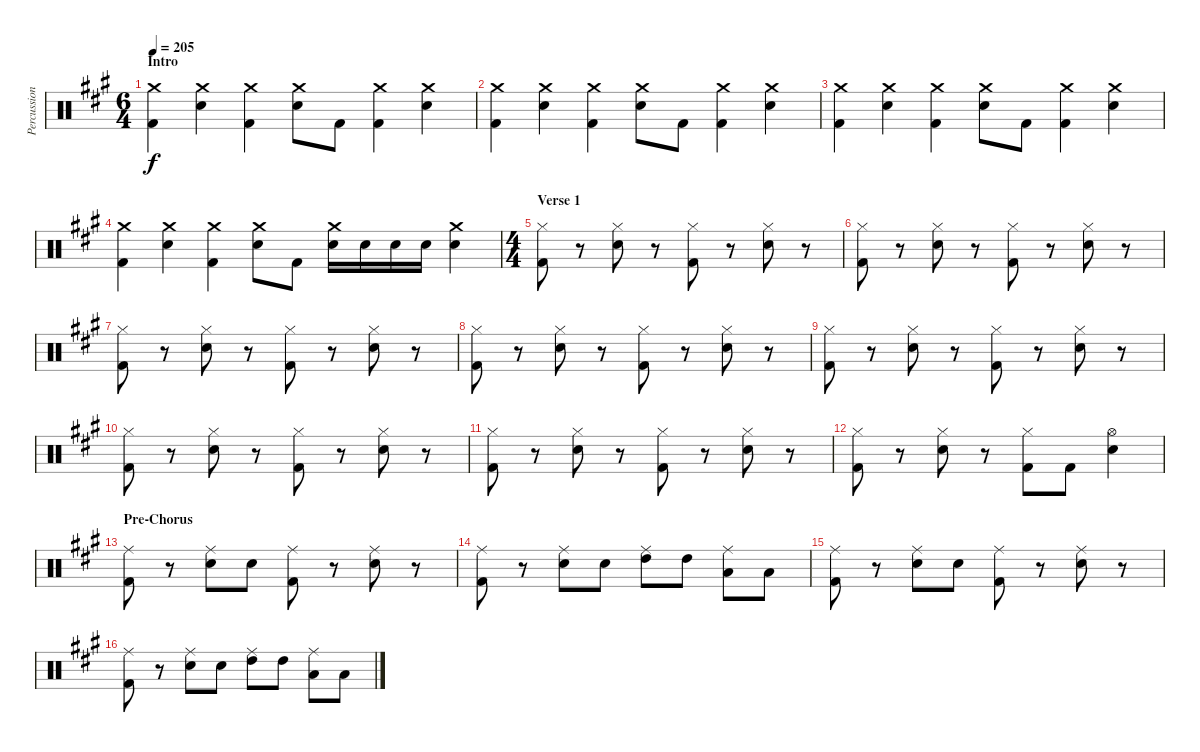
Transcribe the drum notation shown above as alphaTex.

\track ("Percussion" "Percussion") {instrument percussion}
\staff {score}
\articulation defaults
\ts (6 4)
\section ("" "Intro")
\tempo 205
\clef neutral
\ks a
("Crash medium (hit)" "Kick (hit) 2").4{dy f} ("Crash medium (hit)" "Snare (hit) 2").4 ("Crash medium (hit)" "Kick (hit) 2").4 ("Crash medium (hit)" "Snare (hit) 2").8 "Kick (hit) 2".8 ("Crash medium (hit)" "Kick (hit) 2").4 ("Crash medium (hit)" "Snare (hit) 2").4 |
("Crash medium (hit)" "Kick (hit) 2").4 ("Crash medium (hit)" "Snare (hit) 2").4 ("Crash medium (hit)" "Kick (hit) 2").4 ("Crash medium (hit)" "Snare (hit) 2").8 "Kick (hit) 2".8 ("Crash medium (hit)" "Kick (hit) 2").4 ("Crash medium (hit)" "Snare (hit) 2").4 |
("Crash medium (hit)" "Kick (hit) 2").4 ("Crash medium (hit)" "Snare (hit) 2").4 ("Crash medium (hit)" "Kick (hit) 2").4 ("Crash medium (hit)" "Snare (hit) 2").8 "Kick (hit) 2".8 ("Crash medium (hit)" "Kick (hit) 2").4 ("Crash medium (hit)" "Snare (hit) 2").4 |
("Crash medium (hit)" "Kick (hit) 2").4 ("Crash medium (hit)" "Snare (hit) 2").4 ("Crash medium (hit)" "Kick (hit) 2").4 ("Crash medium (hit)" "Snare (hit) 2").8 "Kick (hit) 2".8 ("Crash medium (hit)" "Snare (hit) 2").16 "Snare (hit) 2".16 "Snare (hit) 2".16 "Snare (hit) 2".16 ("Crash medium (hit)" "Snare (hit) 2").4 |
\ts (4 4)
\section ("" "Verse 1")
("Hi-Hat (closed)" "Kick (hit) 2").8 r.8 ("Hi-Hat (closed)" "Snare (hit) 2").8 r.8 ("Hi-Hat (closed)" "Kick (hit) 2").8 r.8 ("Hi-Hat (closed)" "Snare (hit) 2").8 r.8 |
("Hi-Hat (closed)" "Kick (hit) 2").8 r.8 ("Hi-Hat (closed)" "Snare (hit) 2").8 r.8 ("Hi-Hat (closed)" "Kick (hit) 2").8 r.8 ("Hi-Hat (closed)" "Snare (hit) 2").8 r.8 |
("Hi-Hat (closed)" "Kick (hit) 2").8 r.8 ("Hi-Hat (closed)" "Snare (hit) 2").8 r.8 ("Hi-Hat (closed)" "Kick (hit) 2").8 r.8 ("Hi-Hat (closed)" "Snare (hit) 2").8 r.8 |
("Hi-Hat (closed)" "Kick (hit) 2").8 r.8 ("Hi-Hat (closed)" "Snare (hit) 2").8 r.8 ("Hi-Hat (closed)" "Kick (hit) 2").8 r.8 ("Hi-Hat (closed)" "Snare (hit) 2").8 r.8 |
("Hi-Hat (closed)" "Kick (hit) 2").8 r.8 ("Hi-Hat (closed)" "Snare (hit) 2").8 r.8 ("Hi-Hat (closed)" "Kick (hit) 2").8 r.8 ("Hi-Hat (closed)" "Snare (hit) 2").8 r.8 |
("Hi-Hat (closed)" "Kick (hit) 2").8 r.8 ("Hi-Hat (closed)" "Snare (hit) 2").8 r.8 ("Hi-Hat (closed)" "Kick (hit) 2").8 r.8 ("Hi-Hat (closed)" "Snare (hit) 2").8 r.8 |
("Hi-Hat (closed)" "Kick (hit) 2").8 r.8 ("Hi-Hat (closed)" "Snare (hit) 2").8 r.8 ("Hi-Hat (closed)" "Kick (hit) 2").8 r.8 ("Hi-Hat (closed)" "Snare (hit) 2").8 r.8 |
("Hi-Hat (closed)" "Kick (hit) 2").8 r.8 ("Hi-Hat (closed)" "Snare (hit) 2").8 r.8 ("Hi-Hat (closed)" "Kick (hit) 2").8 "Kick (hit) 2".8 ("Hi-Hat (open)" "Snare (hit) 2").4 |
\section ("" "Pre-Chorus")
("Ride (middle)" "Kick (hit) 2").8 r.8 ("Ride (middle)" "Snare (hit) 2").8 "Snare (hit) 2".8 ("Ride (middle)" "Kick (hit) 2").8 r.8 ("Ride (middle)" "Snare (hit) 2").8 r.8 |
("Ride (middle)" "Kick (hit) 2").8 r.8 ("Ride (middle)" "Snare (hit) 2").8 "Snare (hit) 2".8 ("Ride (middle)" "High Tom (hit)").8 "High Tom (hit)".8 ("Ride (middle)" "Low Tom (hit)").8 "Low Tom (hit)".8 |
("Ride (middle)" "Kick (hit) 2").8 r.8 ("Ride (middle)" "Snare (hit) 2").8 "Snare (hit) 2".8 ("Ride (middle)" "Kick (hit) 2").8 r.8 ("Ride (middle)" "Snare (hit) 2").8 r.8 |
("Ride (middle)" "Kick (hit) 2").8 r.8 ("Ride (middle)" "Snare (hit) 2").8 "Snare (hit) 2".8 ("Ride (middle)" "High Tom (hit)").8 "High Tom (hit)".8 ("Ride (middle)" "Low Tom (hit)").8 "Low Tom (hit)".8
